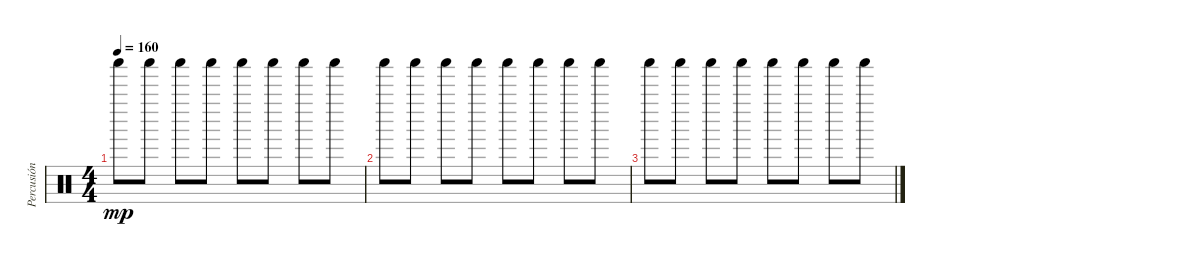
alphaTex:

\track ("Percusión" "Percusión") {instrument percussion}
\staff {score}
\articulation defaults
\ts (4 4)
\tempo 160
\clef neutral
\ks c "Shaker (hit)".8{dy mp} "Shaker (hit)".8 "Shaker (hit)".8 "Shaker (hit)".8 "Shaker (hit)".8 "Shaker (hit)".8 "Shaker (hit)".8 "Shaker (hit)".8
|
"Shaker (hit)".8 "Shaker (hit)".8 "Shaker (hit)".8 "Shaker (hit)".8 "Shaker (hit)".8 "Shaker (hit)".8 "Shaker (hit)".8 "Shaker (hit)".8 |
"Shaker (hit)".8 "Shaker (hit)".8 "Shaker (hit)".8 "Shaker (hit)".8 "Shaker (hit)".8 "Shaker (hit)".8 "Shaker (hit)".8 "Shaker (hit)".8
